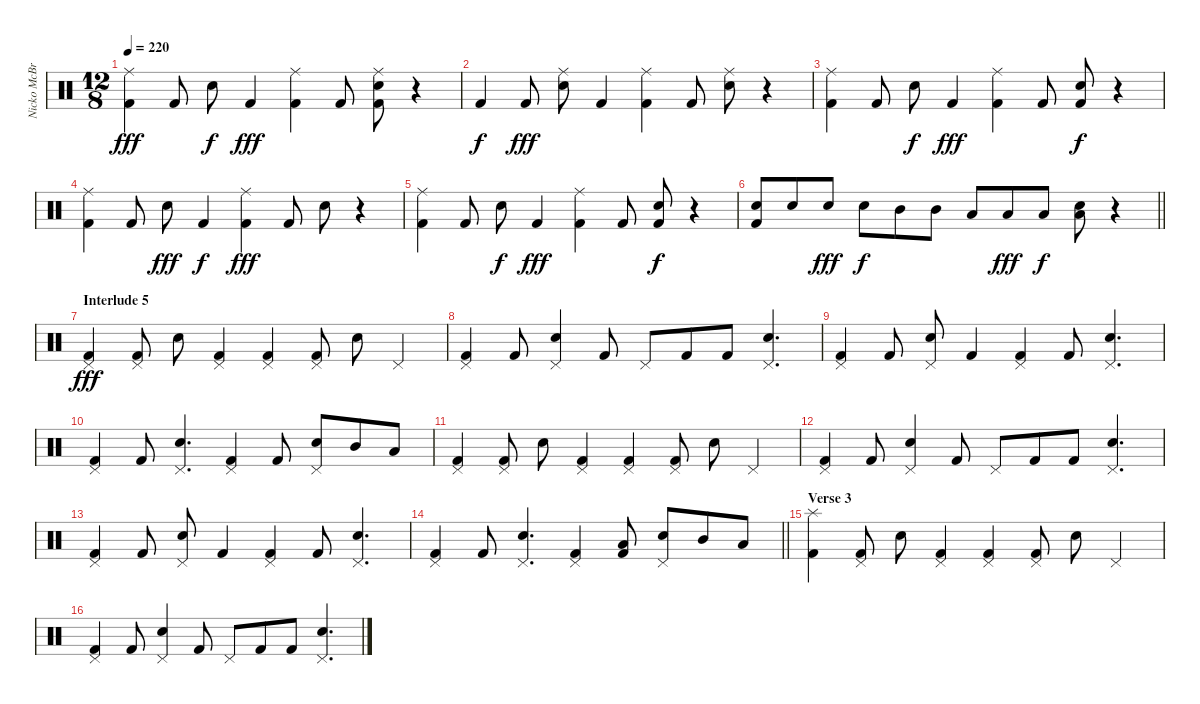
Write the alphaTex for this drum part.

\track ("Nicko McBrain" "Nicko McBr") {instrument percussion}
\staff {score}
\articulation defaults
\ts (12 8)
\tempo 220
\clef neutral
\ks c
("Ride (middle)" "Kick (hit) 2").4{dy fff} "Kick (hit) 2".8 "Snare (hit) 2".8{dy f} "Kick (hit) 2".4{dy fff} ("Ride (middle)" "Kick (hit) 2").4 "Kick (hit) 2".8 ("Snare (hit) 2" "Ride (middle)" "Kick (hit) 2").8 r.4 |
"Kick (hit) 2".4{dy f} "Kick (hit) 2".8{dy fff} ("Snare (hit) 2" "Ride (middle)").8 "Kick (hit) 2".4 ("Ride (middle)" "Kick (hit) 2").4 "Kick (hit) 2".8 ("Snare (hit) 2" "Ride (middle)").8 r.4 |
("Ride (middle)" "Kick (hit) 2").4 "Kick (hit) 2".8 "Snare (hit) 2".8{dy f} "Kick (hit) 2".4{dy fff} ("Ride (middle)" "Kick (hit) 2").4 "Kick (hit) 2".8 ("Snare (hit) 2" "Kick (hit) 2").8{dy f} r.4 |
("Ride (middle)" "Kick (hit) 2").4 "Kick (hit) 2".8 "Snare (hit) 2".8{dy fff} "Kick (hit) 2".4{dy f} ("Ride (middle)" "Kick (hit) 2").4{dy fff} "Kick (hit) 2".8 "Snare (hit) 2".8 r.4 |
("Ride (middle)" "Kick (hit) 2").4 "Kick (hit) 2".8 "Snare (hit) 2".8{dy f} "Kick (hit) 2".4{dy fff} ("Ride (middle)" "Kick (hit) 2").4 "Kick (hit) 2".8 ("Snare (hit) 2" "Kick (hit) 2").8{dy f} r.4 |
\barLineRight lightlight
("Snare (hit) 2" "Kick (hit) 2").8 "Snare (hit) 2".8 "Snare (hit) 2".8{dy fff} "Snare (hit) 2".8{dy f} "Mid Tom (hit)".8 "Mid Tom (hit)".8 "Low Tom (hit)".8 "Low Tom (hit)".8{dy fff} "Low Tom (hit)".8{dy f} ("Snare (hit) 2" "Low Tom (hit)").8 r.4 |
\section ("" "Interlude 5")
("Pedal Hi-Hat (hit)" "Kick (hit) 2").4{dy fff} ("Pedal Hi-Hat (hit)" "Kick (hit) 2").8 "Snare (hit) 2".8 ("Pedal Hi-Hat (hit)" "Kick (hit) 2").4 ("Pedal Hi-Hat (hit)" "Kick (hit) 2").4 ("Pedal Hi-Hat (hit)" "Kick (hit) 2").8 "Snare (hit) 2".8 "Pedal Hi-Hat (hit)".4 |
("Pedal Hi-Hat (hit)" "Kick (hit) 2").4 "Kick (hit) 2".8 ("Snare (hit) 2" "Pedal Hi-Hat (hit)").4 "Kick (hit) 2".8 "Pedal Hi-Hat (hit)".8 "Kick (hit) 2".8 "Kick (hit) 2".8 ("Snare (hit) 2" "Pedal Hi-Hat (hit)").4{d} |
("Pedal Hi-Hat (hit)" "Kick (hit) 2").4 "Kick (hit) 2".8 ("Snare (hit) 2" "Pedal Hi-Hat (hit)").8 "Kick (hit) 2".4 ("Pedal Hi-Hat (hit)" "Kick (hit) 2").4 "Kick (hit) 2".8 ("Snare (hit) 2" "Pedal Hi-Hat (hit)").4{d} |
("Pedal Hi-Hat (hit)" "Kick (hit) 2").4 "Kick (hit) 2".8 ("Snare (hit) 2" "Pedal Hi-Hat (hit)").4{d} ("Pedal Hi-Hat (hit)" "Kick (hit) 2").4 "Kick (hit) 2".8 ("Snare (hit) 2" "Pedal Hi-Hat (hit)").8 "Mid Tom (hit)".8 "Low Tom (hit)".8 |
("Pedal Hi-Hat (hit)" "Kick (hit) 2").4 ("Pedal Hi-Hat (hit)" "Kick (hit) 2").8 "Snare (hit) 2".8 ("Pedal Hi-Hat (hit)" "Kick (hit) 2").4 ("Pedal Hi-Hat (hit)" "Kick (hit) 2").4 ("Pedal Hi-Hat (hit)" "Kick (hit) 2").8 "Snare (hit) 2".8 "Pedal Hi-Hat (hit)".4 |
("Pedal Hi-Hat (hit)" "Kick (hit) 2").4 "Kick (hit) 2".8 ("Snare (hit) 2" "Pedal Hi-Hat (hit)").4 "Kick (hit) 2".8 "Pedal Hi-Hat (hit)".8 "Kick (hit) 2".8 "Kick (hit) 2".8 ("Snare (hit) 2" "Pedal Hi-Hat (hit)").4{d} |
("Pedal Hi-Hat (hit)" "Kick (hit) 2").4 "Kick (hit) 2".8 ("Snare (hit) 2" "Pedal Hi-Hat (hit)").8 "Kick (hit) 2".4 ("Pedal Hi-Hat (hit)" "Kick (hit) 2").4 "Kick (hit) 2".8 ("Snare (hit) 2" "Pedal Hi-Hat (hit)").4{d} |
\barLineRight lightlight
("Pedal Hi-Hat (hit)" "Kick (hit) 2").4 "Kick (hit) 2".8 ("Snare (hit) 2" "Pedal Hi-Hat (hit)").4{d} ("Pedal Hi-Hat (hit)" "Kick (hit) 2").4 ("Low Tom (hit)" "Kick (hit) 2").8 ("Snare (hit) 2" "Pedal Hi-Hat (hit)").8 "Mid Tom (hit)".8 "Low Tom (hit)".8 |
\section ("" "Verse 3")
("Splash (hit)" "Kick (hit) 2").4 ("Pedal Hi-Hat (hit)" "Kick (hit) 2").8 "Snare (hit) 2".8 ("Pedal Hi-Hat (hit)" "Kick (hit) 2").4 ("Pedal Hi-Hat (hit)" "Kick (hit) 2").4 ("Pedal Hi-Hat (hit)" "Kick (hit) 2").8 "Snare (hit) 2".8 "Pedal Hi-Hat (hit)".4 |
("Pedal Hi-Hat (hit)" "Kick (hit) 2").4 "Kick (hit) 2".8 ("Snare (hit) 2" "Pedal Hi-Hat (hit)").4 "Kick (hit) 2".8 "Pedal Hi-Hat (hit)".8 "Kick (hit) 2".8 "Kick (hit) 2".8 ("Snare (hit) 2" "Pedal Hi-Hat (hit)").4{d}
